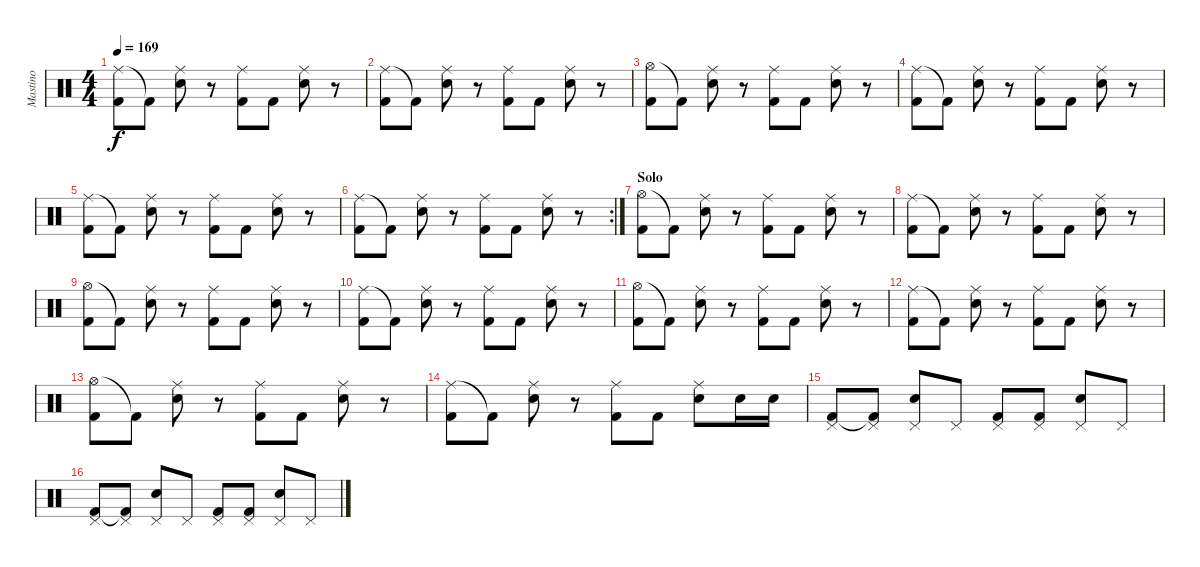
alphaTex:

\track ("Mastino" "Mastino") {instrument percussion}
\staff {score}
\articulation defaults
\ts (4 4)
\tempo 169
\clef neutral
\ks c
("Ride (middle)" "Kick (hit) 2").8{dy f} "Kick (hit) 2"{t}.8 ("Ride (middle)" "Electric Snare (hit)").8 r.8 ("Ride (middle)" "Kick (hit) 2").8 "Kick (hit) 2".8 ("Ride (middle)" "Electric Snare (hit)").8 r.8 |
("Ride (middle)" "Kick (hit) 2").8 "Kick (hit) 2"{t}.8 ("Ride (middle)" "Electric Snare (hit)").8 r.8 ("Ride (middle)" "Kick (hit) 2").8 "Kick (hit) 2".8 ("Ride (middle)" "Electric Snare (hit)").8 r.8 |
("Hi-Hat (open)" "Kick (hit) 2").8 "Kick (hit) 2"{t}.8 ("Ride (middle)" "Electric Snare (hit)").8 r.8 ("Ride (middle)" "Kick (hit) 2").8 "Kick (hit) 2".8 ("Ride (middle)" "Electric Snare (hit)").8 r.8 |
("Ride (middle)" "Kick (hit) 2").8 "Kick (hit) 2"{t}.8 ("Ride (middle)" "Electric Snare (hit)").8 r.8 ("Ride (middle)" "Kick (hit) 2").8 "Kick (hit) 2".8 ("Ride (middle)" "Electric Snare (hit)").8 r.8 |
("Ride (middle)" "Kick (hit) 2").8 "Kick (hit) 2"{t}.8 ("Ride (middle)" "Electric Snare (hit)").8 r.8 ("Ride (middle)" "Kick (hit) 2").8 "Kick (hit) 2".8 ("Ride (middle)" "Electric Snare (hit)").8 r.8 |
\rc 2
("Ride (middle)" "Kick (hit) 2").8 "Kick (hit) 2"{t}.8 ("Ride (middle)" "Electric Snare (hit)").8 r.8 ("Ride (middle)" "Kick (hit) 2").8 "Kick (hit) 2".8 ("Ride (middle)" "Electric Snare (hit)").8 r.8 |
\section ("" "Solo")
("Hi-Hat (open)" "Kick (hit) 2").8 "Kick (hit) 2"{t}.8 ("Ride (middle)" "Electric Snare (hit)").8 r.8 ("Ride (middle)" "Kick (hit) 2").8 "Kick (hit) 2".8 ("Ride (middle)" "Electric Snare (hit)").8 r.8 |
("Ride (middle)" "Kick (hit) 2").8 "Kick (hit) 2"{t}.8 ("Ride (middle)" "Electric Snare (hit)").8 r.8 ("Ride (middle)" "Kick (hit) 2").8 "Kick (hit) 2".8 ("Ride (middle)" "Electric Snare (hit)").8 r.8 |
("Hi-Hat (open)" "Kick (hit) 2").8 "Kick (hit) 2"{t}.8 ("Ride (middle)" "Electric Snare (hit)").8 r.8 ("Ride (middle)" "Kick (hit) 2").8 "Kick (hit) 2".8 ("Ride (middle)" "Electric Snare (hit)").8 r.8 |
("Ride (middle)" "Kick (hit) 2").8 "Kick (hit) 2"{t}.8 ("Ride (middle)" "Electric Snare (hit)").8 r.8 ("Ride (middle)" "Kick (hit) 2").8 "Kick (hit) 2".8 ("Ride (middle)" "Electric Snare (hit)").8 r.8 |
("Hi-Hat (open)" "Kick (hit) 2").8 "Kick (hit) 2"{t}.8 ("Ride (middle)" "Electric Snare (hit)").8 r.8 ("Ride (middle)" "Kick (hit) 2").8 "Kick (hit) 2".8 ("Ride (middle)" "Electric Snare (hit)").8 r.8 |
("Ride (middle)" "Kick (hit) 2").8 "Kick (hit) 2"{t}.8 ("Ride (middle)" "Electric Snare (hit)").8 r.8 ("Ride (middle)" "Kick (hit) 2").8 "Kick (hit) 2".8 ("Ride (middle)" "Electric Snare (hit)").8 r.8 |
("Hi-Hat (open)" "Kick (hit) 2").8 "Kick (hit) 2"{t}.8 ("Ride (middle)" "Electric Snare (hit)").8 r.8 ("Ride (middle)" "Kick (hit) 2").8 "Kick (hit) 2".8 ("Ride (middle)" "Electric Snare (hit)").8 r.8 |
("Ride (middle)" "Kick (hit) 2").8 "Kick (hit) 2"{t}.8 ("Ride (middle)" "Electric Snare (hit)").8 r.8 ("Ride (middle)" "Kick (hit) 2").8 "Kick (hit) 2".8 ("Ride (middle)" "Electric Snare (hit)").8 "Electric Snare (hit)".16 "Electric Snare (hit)".16 |
("Pedal Hi-Hat (hit)" "Kick (hit) 2").8 ("Pedal Hi-Hat (hit)" "Kick (hit) 2"{t}).8 ("Pedal Hi-Hat (hit)" "Electric Snare (hit)").8 "Pedal Hi-Hat (hit)".8 ("Pedal Hi-Hat (hit)" "Kick (hit) 2").8 ("Pedal Hi-Hat (hit)" "Kick (hit) 2").8 ("Pedal Hi-Hat (hit)" "Electric Snare (hit)").8 "Pedal Hi-Hat (hit)".8 |
("Pedal Hi-Hat (hit)" "Kick (hit) 2").8 ("Pedal Hi-Hat (hit)" "Kick (hit) 2"{t}).8 ("Pedal Hi-Hat (hit)" "Electric Snare (hit)").8 "Pedal Hi-Hat (hit)".8 ("Pedal Hi-Hat (hit)" "Kick (hit) 2").8 ("Pedal Hi-Hat (hit)" "Kick (hit) 2").8 ("Pedal Hi-Hat (hit)" "Electric Snare (hit)").8 "Pedal Hi-Hat (hit)".8
